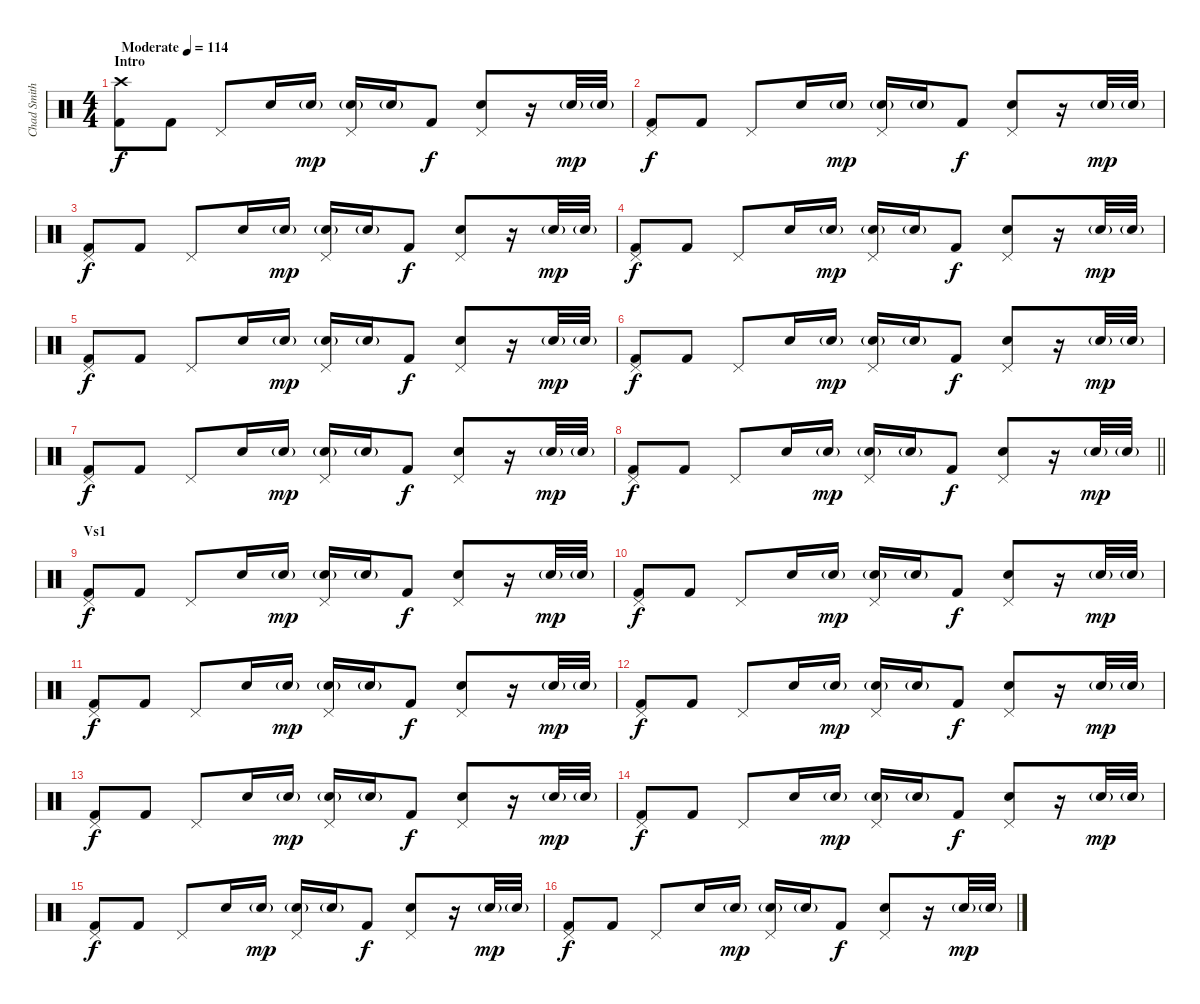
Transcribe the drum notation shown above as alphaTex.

\track ("Chad Smith" "Chad Smith") {instrument percussion}
\staff {score}
\articulation defaults
\ts (4 4)
\section ("" "Intro")
\tempo (114 "Moderate")
\clef neutral
\ks c
("Crash high (hit)" "Kick (hit) 2").8{dy f} "Kick (hit) 2".8 "Pedal Hi-Hat (hit)".8 "Snare (hit) 2".16 "Snare (hit) 2"{g}.16{dy mp} ("Pedal Hi-Hat (hit)" "Snare (hit) 2"{g}).16 "Snare (hit) 2"{g}.16 "Kick (hit) 2".8{dy f} ("Pedal Hi-Hat (hit)" "Snare (hit) 2").8 r.16 "Snare (hit) 2"{g}.32{dy mp} "Snare (hit) 2"{g}.32 |
("Pedal Hi-Hat (hit)" "Kick (hit) 2").8{dy f} "Kick (hit) 2".8 "Pedal Hi-Hat (hit)".8 "Snare (hit) 2".16 "Snare (hit) 2"{g}.16{dy mp} ("Pedal Hi-Hat (hit)" "Snare (hit) 2"{g}).16 "Snare (hit) 2"{g}.16 "Kick (hit) 2".8{dy f} ("Pedal Hi-Hat (hit)" "Snare (hit) 2").8 r.16 "Snare (hit) 2"{g}.32{dy mp} "Snare (hit) 2"{g}.32 |
("Pedal Hi-Hat (hit)" "Kick (hit) 2").8{dy f} "Kick (hit) 2".8 "Pedal Hi-Hat (hit)".8 "Snare (hit) 2".16 "Snare (hit) 2"{g}.16{dy mp} ("Pedal Hi-Hat (hit)" "Snare (hit) 2"{g}).16 "Snare (hit) 2"{g}.16 "Kick (hit) 2".8{dy f} ("Pedal Hi-Hat (hit)" "Snare (hit) 2").8 r.16 "Snare (hit) 2"{g}.32{dy mp} "Snare (hit) 2"{g}.32 |
("Pedal Hi-Hat (hit)" "Kick (hit) 2").8{dy f} "Kick (hit) 2".8 "Pedal Hi-Hat (hit)".8 "Snare (hit) 2".16 "Snare (hit) 2"{g}.16{dy mp} ("Pedal Hi-Hat (hit)" "Snare (hit) 2"{g}).16 "Snare (hit) 2"{g}.16 "Kick (hit) 2".8{dy f} ("Pedal Hi-Hat (hit)" "Snare (hit) 2").8 r.16 "Snare (hit) 2"{g}.32{dy mp} "Snare (hit) 2"{g}.32 |
("Pedal Hi-Hat (hit)" "Kick (hit) 2").8{dy f} "Kick (hit) 2".8 "Pedal Hi-Hat (hit)".8 "Snare (hit) 2".16 "Snare (hit) 2"{g}.16{dy mp} ("Pedal Hi-Hat (hit)" "Snare (hit) 2"{g}).16 "Snare (hit) 2"{g}.16 "Kick (hit) 2".8{dy f} ("Pedal Hi-Hat (hit)" "Snare (hit) 2").8 r.16 "Snare (hit) 2"{g}.32{dy mp} "Snare (hit) 2"{g}.32 |
("Pedal Hi-Hat (hit)" "Kick (hit) 2").8{dy f} "Kick (hit) 2".8 "Pedal Hi-Hat (hit)".8 "Snare (hit) 2".16 "Snare (hit) 2"{g}.16{dy mp} ("Pedal Hi-Hat (hit)" "Snare (hit) 2"{g}).16 "Snare (hit) 2"{g}.16 "Kick (hit) 2".8{dy f} ("Pedal Hi-Hat (hit)" "Snare (hit) 2").8 r.16 "Snare (hit) 2"{g}.32{dy mp} "Snare (hit) 2"{g}.32 |
("Pedal Hi-Hat (hit)" "Kick (hit) 2").8{dy f} "Kick (hit) 2".8 "Pedal Hi-Hat (hit)".8 "Snare (hit) 2".16 "Snare (hit) 2"{g}.16{dy mp} ("Pedal Hi-Hat (hit)" "Snare (hit) 2"{g}).16 "Snare (hit) 2"{g}.16 "Kick (hit) 2".8{dy f} ("Pedal Hi-Hat (hit)" "Snare (hit) 2").8 r.16 "Snare (hit) 2"{g}.32{dy mp} "Snare (hit) 2"{g}.32 |
\barLineRight lightlight
("Pedal Hi-Hat (hit)" "Kick (hit) 2").8{dy f} "Kick (hit) 2".8 "Pedal Hi-Hat (hit)".8 "Snare (hit) 2".16 "Snare (hit) 2"{g}.16{dy mp} ("Pedal Hi-Hat (hit)" "Snare (hit) 2"{g}).16 "Snare (hit) 2"{g}.16 "Kick (hit) 2".8{dy f} ("Pedal Hi-Hat (hit)" "Snare (hit) 2").8 r.16 "Snare (hit) 2"{g}.32{dy mp} "Snare (hit) 2"{g}.32 |
\section ("" "Vs1")
("Pedal Hi-Hat (hit)" "Kick (hit) 2").8{dy f} "Kick (hit) 2".8 "Pedal Hi-Hat (hit)".8 "Snare (hit) 2".16 "Snare (hit) 2"{g}.16{dy mp} ("Pedal Hi-Hat (hit)" "Snare (hit) 2"{g}).16 "Snare (hit) 2"{g}.16 "Kick (hit) 2".8{dy f} ("Pedal Hi-Hat (hit)" "Snare (hit) 2").8 r.16 "Snare (hit) 2"{g}.32{dy mp} "Snare (hit) 2"{g}.32 |
("Pedal Hi-Hat (hit)" "Kick (hit) 2").8{dy f} "Kick (hit) 2".8 "Pedal Hi-Hat (hit)".8 "Snare (hit) 2".16 "Snare (hit) 2"{g}.16{dy mp} ("Pedal Hi-Hat (hit)" "Snare (hit) 2"{g}).16 "Snare (hit) 2"{g}.16 "Kick (hit) 2".8{dy f} ("Pedal Hi-Hat (hit)" "Snare (hit) 2").8 r.16 "Snare (hit) 2"{g}.32{dy mp} "Snare (hit) 2"{g}.32 |
("Pedal Hi-Hat (hit)" "Kick (hit) 2").8{dy f} "Kick (hit) 2".8 "Pedal Hi-Hat (hit)".8 "Snare (hit) 2".16 "Snare (hit) 2"{g}.16{dy mp} ("Pedal Hi-Hat (hit)" "Snare (hit) 2"{g}).16 "Snare (hit) 2"{g}.16 "Kick (hit) 2".8{dy f} ("Pedal Hi-Hat (hit)" "Snare (hit) 2").8 r.16 "Snare (hit) 2"{g}.32{dy mp} "Snare (hit) 2"{g}.32 |
("Pedal Hi-Hat (hit)" "Kick (hit) 2").8{dy f} "Kick (hit) 2".8 "Pedal Hi-Hat (hit)".8 "Snare (hit) 2".16 "Snare (hit) 2"{g}.16{dy mp} ("Pedal Hi-Hat (hit)" "Snare (hit) 2"{g}).16 "Snare (hit) 2"{g}.16 "Kick (hit) 2".8{dy f} ("Pedal Hi-Hat (hit)" "Snare (hit) 2").8 r.16 "Snare (hit) 2"{g}.32{dy mp} "Snare (hit) 2"{g}.32 |
("Pedal Hi-Hat (hit)" "Kick (hit) 2").8{dy f} "Kick (hit) 2".8 "Pedal Hi-Hat (hit)".8 "Snare (hit) 2".16 "Snare (hit) 2"{g}.16{dy mp} ("Pedal Hi-Hat (hit)" "Snare (hit) 2"{g}).16 "Snare (hit) 2"{g}.16 "Kick (hit) 2".8{dy f} ("Pedal Hi-Hat (hit)" "Snare (hit) 2").8 r.16 "Snare (hit) 2"{g}.32{dy mp} "Snare (hit) 2"{g}.32 |
("Pedal Hi-Hat (hit)" "Kick (hit) 2").8{dy f} "Kick (hit) 2".8 "Pedal Hi-Hat (hit)".8 "Snare (hit) 2".16 "Snare (hit) 2"{g}.16{dy mp} ("Pedal Hi-Hat (hit)" "Snare (hit) 2"{g}).16 "Snare (hit) 2"{g}.16 "Kick (hit) 2".8{dy f} ("Pedal Hi-Hat (hit)" "Snare (hit) 2").8 r.16 "Snare (hit) 2"{g}.32{dy mp} "Snare (hit) 2"{g}.32 |
("Pedal Hi-Hat (hit)" "Kick (hit) 2").8{dy f} "Kick (hit) 2".8 "Pedal Hi-Hat (hit)".8 "Snare (hit) 2".16 "Snare (hit) 2"{g}.16{dy mp} ("Pedal Hi-Hat (hit)" "Snare (hit) 2"{g}).16 "Snare (hit) 2"{g}.16 "Kick (hit) 2".8{dy f} ("Pedal Hi-Hat (hit)" "Snare (hit) 2").8 r.16 "Snare (hit) 2"{g}.32{dy mp} "Snare (hit) 2"{g}.32 |
("Pedal Hi-Hat (hit)" "Kick (hit) 2").8{dy f} "Kick (hit) 2".8 "Pedal Hi-Hat (hit)".8 "Snare (hit) 2".16 "Snare (hit) 2"{g}.16{dy mp} ("Pedal Hi-Hat (hit)" "Snare (hit) 2"{g}).16 "Snare (hit) 2"{g}.16 "Kick (hit) 2".8{dy f} ("Pedal Hi-Hat (hit)" "Snare (hit) 2").8 r.16 "Snare (hit) 2"{g}.32{dy mp} "Snare (hit) 2"{g}.32
